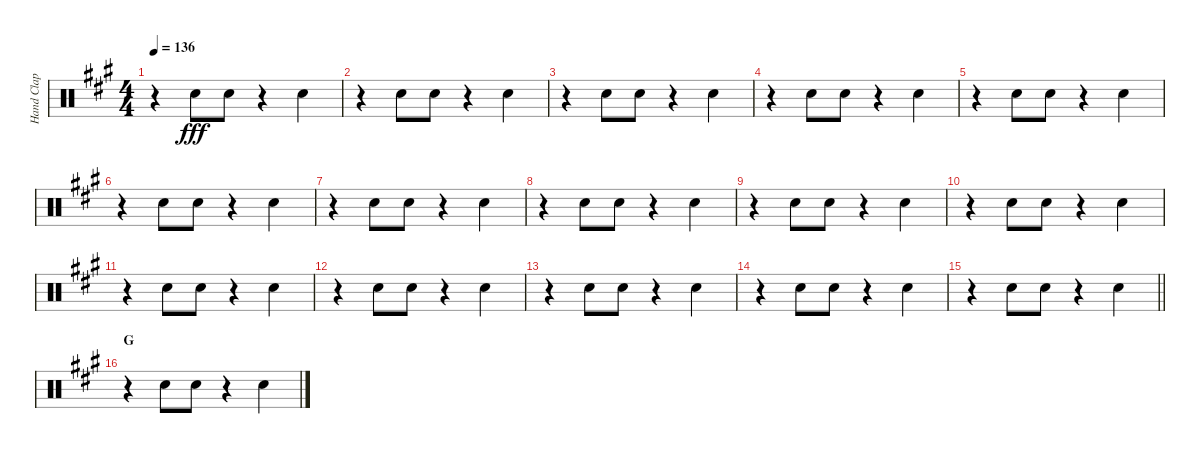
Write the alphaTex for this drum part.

\track ("Hand Clap" "Hand Clap") {instrument percussion}
\staff {score}
\articulation defaults
\ts (4 4)
\tempo 136
\clef neutral
\ks a
r.4{dy fff} "Hand Clap (hit)".8 "Hand Clap (hit)".8 r.4 "Hand Clap (hit)".4 |
r.4 "Hand Clap (hit)".8 "Hand Clap (hit)".8 r.4 "Hand Clap (hit)".4 |
r.4 "Hand Clap (hit)".8 "Hand Clap (hit)".8 r.4 "Hand Clap (hit)".4 |
r.4 "Hand Clap (hit)".8 "Hand Clap (hit)".8 r.4 "Hand Clap (hit)".4 |
r.4 "Hand Clap (hit)".8 "Hand Clap (hit)".8 r.4 "Hand Clap (hit)".4 |
r.4 "Hand Clap (hit)".8 "Hand Clap (hit)".8 r.4 "Hand Clap (hit)".4 |
r.4 "Hand Clap (hit)".8 "Hand Clap (hit)".8 r.4 "Hand Clap (hit)".4 |
r.4 "Hand Clap (hit)".8 "Hand Clap (hit)".8 r.4 "Hand Clap (hit)".4 |
r.4 "Hand Clap (hit)".8 "Hand Clap (hit)".8 r.4 "Hand Clap (hit)".4 |
r.4 "Hand Clap (hit)".8 "Hand Clap (hit)".8 r.4 "Hand Clap (hit)".4 |
r.4 "Hand Clap (hit)".8 "Hand Clap (hit)".8 r.4 "Hand Clap (hit)".4 |
r.4 "Hand Clap (hit)".8 "Hand Clap (hit)".8 r.4 "Hand Clap (hit)".4 |
r.4 "Hand Clap (hit)".8 "Hand Clap (hit)".8 r.4 "Hand Clap (hit)".4 |
r.4 "Hand Clap (hit)".8 "Hand Clap (hit)".8 r.4 "Hand Clap (hit)".4 |
\barLineRight lightlight
r.4 "Hand Clap (hit)".8 "Hand Clap (hit)".8 r.4 "Hand Clap (hit)".4 |
\section ("" "G")
r.4 "Hand Clap (hit)".8 "Hand Clap (hit)".8 r.4 "Hand Clap (hit)".4
